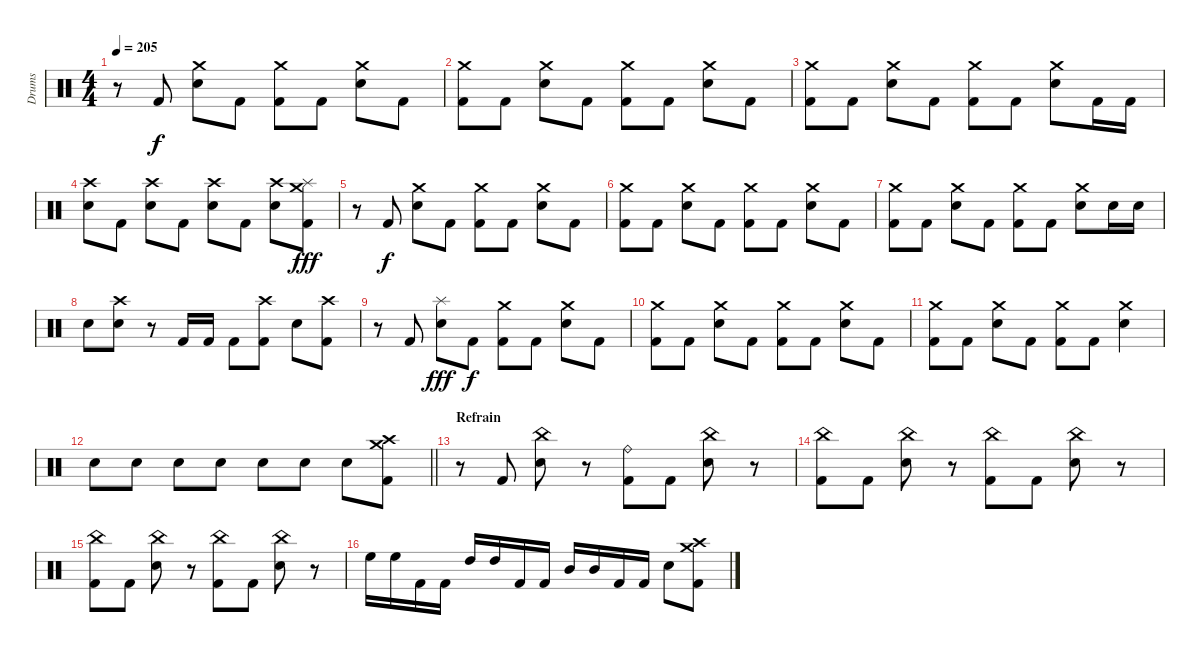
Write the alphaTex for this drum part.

\track ("Drums" "Drums") {instrument percussion}
\staff {score}
\articulation defaults
\ts (4 4)
\tempo 205
\clef neutral
\ks c
r.8{dy fff} "Kick (hit) 2".8{dy f} ("Crash medium (hit)" "Electric Snare (hit)").8 "Kick (hit) 2".8 ("Crash medium (hit)" "Kick (hit) 2").8 "Kick (hit) 2".8 ("Crash medium (hit)" "Electric Snare (hit)").8 "Kick (hit) 2".8 |
("Crash medium (hit)" "Kick (hit) 2").8 "Kick (hit) 2".8 ("Crash medium (hit)" "Electric Snare (hit)").8 "Kick (hit) 2".8 ("Crash medium (hit)" "Kick (hit) 2").8 "Kick (hit) 2".8 ("Crash medium (hit)" "Electric Snare (hit)").8 "Kick (hit) 2".8 |
("Crash medium (hit)" "Kick (hit) 2").8 "Kick (hit) 2".8 ("Crash medium (hit)" "Electric Snare (hit)").8 "Kick (hit) 2".8 ("Crash medium (hit)" "Kick (hit) 2").8 "Kick (hit) 2".8 ("Crash medium (hit)" "Electric Snare (hit)").8 "Kick (hit) 2".16 "Kick (hit) 2".16 |
("Crash high (hit)" "Electric Snare (hit)").8 "Kick (hit) 2".8 ("Crash high (hit)" "Electric Snare (hit)").8 "Kick (hit) 2".8 ("Crash high (hit)" "Electric Snare (hit)").8 "Kick (hit) 2".8 ("Crash high (hit)" "Electric Snare (hit)").8 ("Splash (hit)" "Crash medium (hit)" "Kick (hit) 2").8{dy fff} |
r.8 "Kick (hit) 2".8{dy f} ("Crash medium (hit)" "Electric Snare (hit)").8 "Kick (hit) 2".8 ("Crash medium (hit)" "Kick (hit) 2").8 "Kick (hit) 2".8 ("Crash medium (hit)" "Electric Snare (hit)").8 "Kick (hit) 2".8 |
("Crash medium (hit)" "Kick (hit) 2").8 "Kick (hit) 2".8 ("Crash medium (hit)" "Electric Snare (hit)").8 "Kick (hit) 2".8 ("Crash medium (hit)" "Kick (hit) 2").8 "Kick (hit) 2".8 ("Crash medium (hit)" "Electric Snare (hit)").8 "Kick (hit) 2".8 |
("Crash medium (hit)" "Kick (hit) 2").8 "Kick (hit) 2".8 ("Crash medium (hit)" "Electric Snare (hit)").8 "Kick (hit) 2".8 ("Crash medium (hit)" "Kick (hit) 2").8 "Kick (hit) 2".8 ("Crash medium (hit)" "Electric Snare (hit)").8 "Electric Snare (hit)".16 "Electric Snare (hit)".16 |
"Electric Snare (hit)".8 ("Crash high (hit)" "Electric Snare (hit)").8 r.8 "Kick (hit) 2".16 "Kick (hit) 2".16 "Kick (hit) 2".8 ("Crash high (hit)" "Kick (hit) 2").8 "Electric Snare (hit)".8 ("Crash high (hit)" "Kick (hit) 2").8 |
r.8 "Kick (hit) 2".8 ("Splash (hit)" "Electric Snare (hit)").8{dy fff} "Kick (hit) 2".8{dy f} ("Crash medium (hit)" "Kick (hit) 2").8 "Kick (hit) 2".8 ("Crash medium (hit)" "Electric Snare (hit)").8 "Kick (hit) 2".8 |
("Crash medium (hit)" "Kick (hit) 2").8 "Kick (hit) 2".8 ("Crash medium (hit)" "Electric Snare (hit)").8 "Kick (hit) 2".8 ("Crash medium (hit)" "Kick (hit) 2").8 "Kick (hit) 2".8 ("Crash medium (hit)" "Electric Snare (hit)").8 "Kick (hit) 2".8 |
("Crash medium (hit)" "Kick (hit) 2").8 "Kick (hit) 2".8 ("Crash medium (hit)" "Electric Snare (hit)").8 "Kick (hit) 2".8 ("Crash medium (hit)" "Kick (hit) 2").8 "Kick (hit) 2".8 ("Crash medium (hit)" "Electric Snare (hit)").4 |
\barLineRight lightlight "Electric Snare (hit)".8 "Electric Snare (hit)".8 "Electric Snare (hit)".8 "Electric Snare (hit)".8 "Electric Snare (hit)".8 "Electric Snare (hit)".8 "Electric Snare (hit)".8
("Crash high (hit)" "Crash medium (hit)" "Kick (hit) 2").8 |
\section ("" "Refrain")
r.8 "Kick (hit) 2".8 ("China (hit)" "Electric Snare (hit)").8 r.8 ("Ride (bell)" "Kick (hit) 2").8 "Kick (hit) 2".8 ("China (hit)" "Electric Snare (hit)").8 r.8 |
("China (hit)" "Kick (hit) 2").8 "Kick (hit) 2".8 ("China (hit)" "Electric Snare (hit)").8 r.8 ("China (hit)" "Kick (hit) 2").8 "Kick (hit) 2".8 ("China (hit)" "Electric Snare (hit)").8 r.8 |
("China (hit)" "Kick (hit) 2").8 "Kick (hit) 2".8 ("China (hit)" "Electric Snare (hit)").8 r.8 ("China (hit)" "Kick (hit) 2").8 "Kick (hit) 2".8 ("China (hit)" "Electric Snare (hit)").8 r.8 |
"High Floor Tom (hit)".16 "High Floor Tom (hit)".16 "Kick (hit) 2".16 "Kick (hit) 2".16 "High Tom (hit)".16 "High Tom (hit)".16 "Kick (hit) 2".16 "Kick (hit) 2".16 "Mid Tom (hit)".16 "Mid Tom (hit)".16 "Kick (hit) 2".16 "Kick (hit) 2".16 "Electric Snare (hit)".8 ("Crash high (hit)" "Crash medium (hit)" "Kick (hit) 2").8
